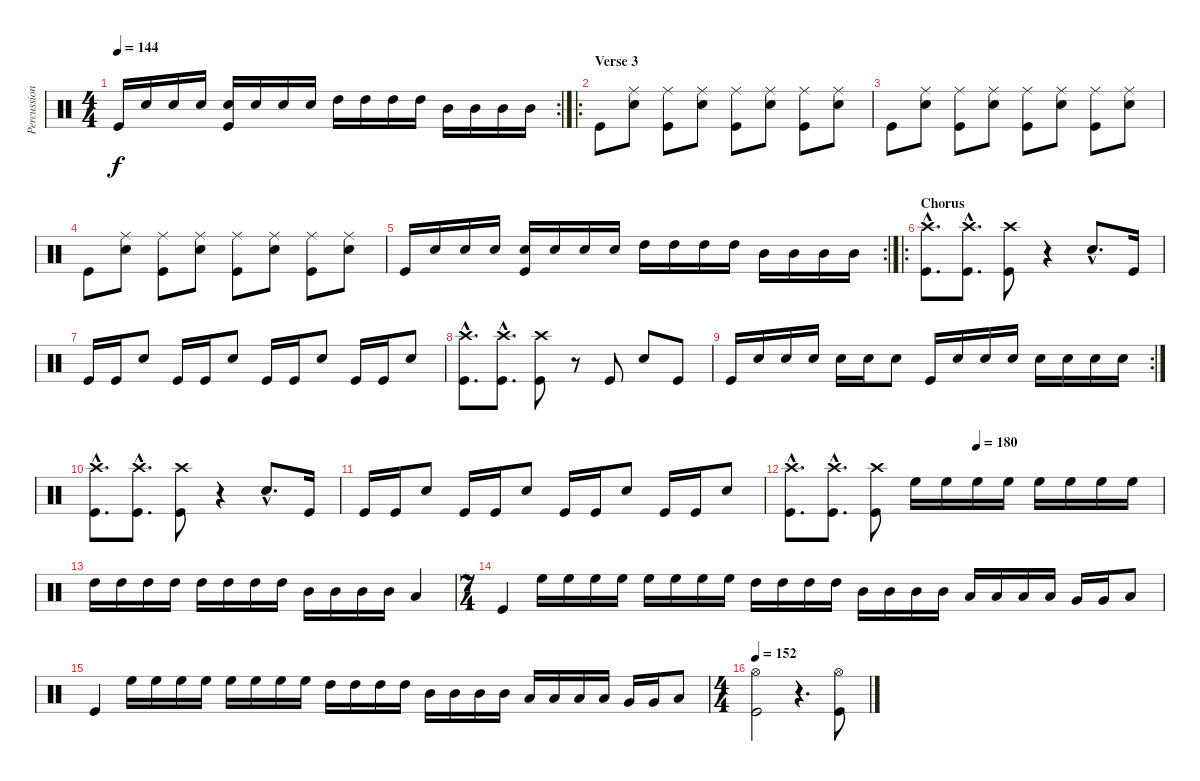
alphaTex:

\track ("Percussion" "Percussion") {instrument percussion}
\staff {score}
\articulation defaults
\rc 2
\ts (4 4)
\tempo 144
\clef neutral
\ks c "Kick (hit)".16{dy f} "Snare (hit) 2".16 "Snare (hit) 2".16 "Snare (hit) 2".16
("Snare (hit) 2" "Kick (hit)").16 "Snare (hit) 2".16 "Snare (hit) 2".16 "Snare (hit) 2".16 "High Tom (hit)".16 "High Tom (hit)".16 "High Tom (hit)".16 "High Tom (hit)".16 "Mid Tom (hit)".16 "Mid Tom (hit)".16 "Mid Tom (hit)".16 "Mid Tom (hit)".16 |
\ro
\section ("" "Verse 3")
"Kick (hit)".8 ("Ride (middle)" "Snare (hit) 2").8 ("Ride (middle)" "Kick (hit)").8 ("Ride (middle)" "Snare (hit) 2").8 ("Ride (middle)" "Kick (hit)").8 ("Ride (middle)" "Snare (hit) 2").8 ("Ride (middle)" "Kick (hit)").8 ("Ride (middle)" "Snare (hit) 2").8 |
"Kick (hit)".8 ("Ride (middle)" "Snare (hit) 2").8 ("Ride (middle)" "Kick (hit)").8 ("Ride (middle)" "Snare (hit) 2").8 ("Ride (middle)" "Kick (hit)").8 ("Ride (middle)" "Snare (hit) 2").8 ("Ride (middle)" "Kick (hit)").8 ("Ride (middle)" "Snare (hit) 2").8 |
"Kick (hit)".8 ("Ride (middle)" "Snare (hit) 2").8 ("Ride (middle)" "Kick (hit)").8 ("Ride (middle)" "Snare (hit) 2").8 ("Ride (middle)" "Kick (hit)").8 ("Ride (middle)" "Snare (hit) 2").8 ("Ride (middle)" "Kick (hit)").8 ("Ride (middle)" "Snare (hit) 2").8 |
\rc 2 "Kick (hit)".16 "Snare (hit) 2".16 "Snare (hit) 2".16 "Snare (hit) 2".16
("Snare (hit) 2" "Kick (hit)").16 "Snare (hit) 2".16 "Snare (hit) 2".16 "Snare (hit) 2".16 "High Tom (hit)".16 "High Tom (hit)".16 "High Tom (hit)".16 "High Tom (hit)".16 "Mid Tom (hit)".16 "Mid Tom (hit)".16 "Mid Tom (hit)".16 "Mid Tom (hit)".16 |
\ro
\section ("" "Chorus")
("Crash high (hit)"{hac} "Kick (hit)"{hac}).8{d} ("Crash high (hit)"{hac} "Kick (hit)"{hac}).8{d} ("Crash high (hit)" "Kick (hit)").8 r.4 "Snare (hit) 2"{hac}.8{d} "Kick (hit)".16 |
"Kick (hit)".16 "Kick (hit)".16 "Snare (hit) 2".8 "Kick (hit)".16 "Kick (hit)".16 "Snare (hit) 2".8 "Kick (hit)".16 "Kick (hit)".16 "Snare (hit) 2".8 "Kick (hit)".16 "Kick (hit)".16 "Snare (hit) 2".8 |
("Crash high (hit)"{hac} "Kick (hit)"{hac}).8{d} ("Crash high (hit)"{hac} "Kick (hit)"{hac}).8{d} ("Crash high (hit)" "Kick (hit)").8 r.8 "Kick (hit)".8 "Snare (hit) 2".8 "Kick (hit)".8 |
\rc 2 "Kick (hit)".16 "Snare (hit) 2".16 "Snare (hit) 2".16 "Snare (hit) 2".16 "Snare (hit) 2".16 "Snare (hit) 2".16 "Snare (hit) 2".8 "Kick (hit)".16 "Snare (hit) 2".16 "Snare (hit) 2".16 "Snare (hit) 2".16 "Snare (hit) 2".16 "Snare (hit) 2".16 "Snare (hit) 2".16 "Snare (hit) 2".16
|
("Crash high (hit)"{hac} "Kick (hit)"{hac}).8{d} ("Crash high (hit)"{hac} "Kick (hit)"{hac}).8{d} ("Crash high (hit)" "Kick (hit)").8 r.4 "Snare (hit) 2"{hac}.8{d} "Kick (hit)".16 |
"Kick (hit)".16 "Kick (hit)".16 "Snare (hit) 2".8 "Kick (hit)".16 "Kick (hit)".16 "Snare (hit) 2".8 "Kick (hit)".16 "Kick (hit)".16 "Snare (hit) 2".8 "Kick (hit)".16 "Kick (hit)".16 "Snare (hit) 2".8 |
\tempo (180 0.5)
("Crash high (hit)"{hac} "Kick (hit)"{hac}).8{d} ("Crash high (hit)"{hac} "Kick (hit)"{hac}).8{d} ("Crash high (hit)" "Kick (hit)").8 "High Floor Tom (hit)".16 "High Floor Tom (hit)".16 "High Floor Tom (hit)".16 "High Floor Tom (hit)".16 "High Floor Tom (hit)".16 "High Floor Tom (hit)".16 "High Floor Tom (hit)".16 "High Floor Tom (hit)".16 |
"High Tom (hit)".16 "High Tom (hit)".16 "High Tom (hit)".16 "High Tom (hit)".16 "High Tom (hit)".16 "High Tom (hit)".16 "High Tom (hit)".16 "High Tom (hit)".16 "Mid Tom (hit)".16 "Mid Tom (hit)".16 "Mid Tom (hit)".16 "Mid Tom (hit)".16 "Low Tom (hit)".4 |
\ts (7 4)
"Kick (hit)".4 "High Floor Tom (hit)".16 "High Floor Tom (hit)".16 "High Floor Tom (hit)".16 "High Floor Tom (hit)".16 "High Floor Tom (hit)".16 "High Floor Tom (hit)".16 "High Floor Tom (hit)".16 "High Floor Tom (hit)".16 "High Tom (hit)".16 "High Tom (hit)".16 "High Tom (hit)".16 "High Tom (hit)".16 "Mid Tom (hit)".16 "Mid Tom (hit)".16 "Mid Tom (hit)".16 "Mid Tom (hit)".16 "Low Tom (hit)".16 "Low Tom (hit)".16 "Low Tom (hit)".16 "Low Tom (hit)".16 "Very Low Tom (hit)".16 "Very Low Tom (hit)".16 "Low Floor Tom (hit)".8 |
"Kick (hit)".4 "High Floor Tom (hit)".16 "High Floor Tom (hit)".16 "High Floor Tom (hit)".16 "High Floor Tom (hit)".16 "High Floor Tom (hit)".16 "High Floor Tom (hit)".16 "High Floor Tom (hit)".16 "High Floor Tom (hit)".16 "High Tom (hit)".16 "High Tom (hit)".16 "High Tom (hit)".16 "High Tom (hit)".16 "Mid Tom (hit)".16 "Mid Tom (hit)".16 "Mid Tom (hit)".16 "Mid Tom (hit)".16 "Low Tom (hit)".16 "Low Tom (hit)".16 "Low Tom (hit)".16 "Low Tom (hit)".16 "Very Low Tom (hit)".16 "Very Low Tom (hit)".16 "Low Floor Tom (hit)".8 |
\ts (4 4)
\tempo 152
("Hi-Hat (open)" "Kick (hit)").2 r.4{d} ("Hi-Hat (open)" "Kick (hit)").8
